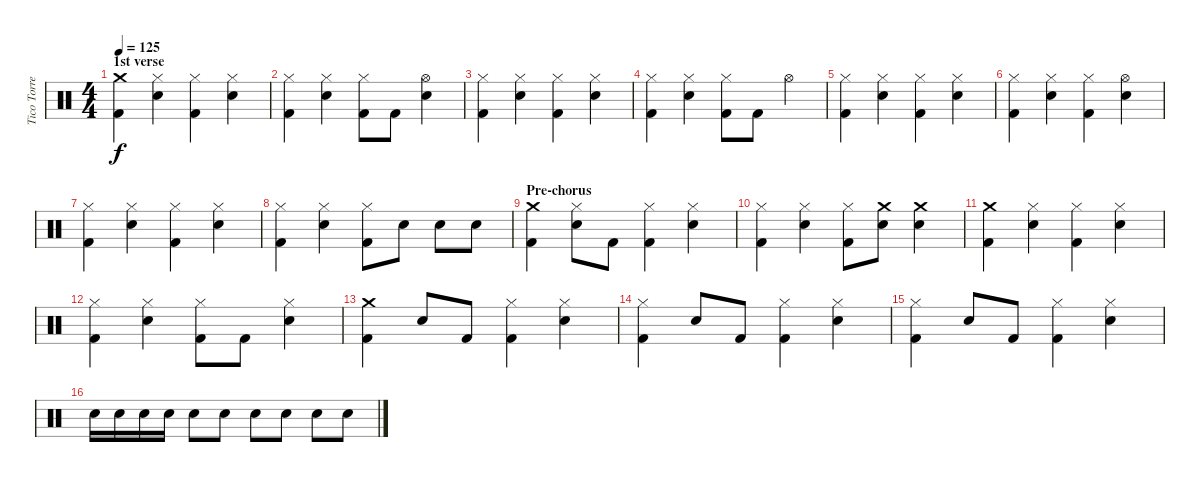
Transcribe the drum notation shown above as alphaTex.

\track ("Tico Torres" "Tico Torre") {instrument percussion}
\staff {score}
\articulation defaults
\ts (4 4)
\section ("" "1st verse")
\tempo 125
\clef neutral
\ks c
("Crash medium (hit)" "Kick (hit) 2").4{dy f} ("Hi-Hat (closed)" "Snare (hit) 2").4 ("Hi-Hat (closed)" "Kick (hit) 2").4 ("Hi-Hat (closed)" "Snare (hit) 2").4 |
("Hi-Hat (closed)" "Kick (hit) 2").4 ("Hi-Hat (closed)" "Snare (hit) 2").4 ("Hi-Hat (closed)" "Kick (hit) 2").8 "Kick (hit) 2".8 ("Hi-Hat (open)" "Snare (hit) 2").4 |
("Hi-Hat (closed)" "Kick (hit) 2").4 ("Hi-Hat (closed)" "Snare (hit) 2").4 ("Hi-Hat (closed)" "Kick (hit) 2").4 ("Hi-Hat (closed)" "Snare (hit) 2").4 |
("Hi-Hat (closed)" "Kick (hit) 2").4 ("Hi-Hat (closed)" "Snare (hit) 2").4 ("Hi-Hat (closed)" "Kick (hit) 2").8 "Kick (hit) 2".8 "Hi-Hat (open)".4 |
("Hi-Hat (closed)" "Kick (hit) 2").4 ("Hi-Hat (closed)" "Snare (hit) 2").4 ("Hi-Hat (closed)" "Kick (hit) 2").4 ("Hi-Hat (closed)" "Snare (hit) 2").4 |
("Hi-Hat (closed)" "Kick (hit) 2").4 ("Hi-Hat (closed)" "Snare (hit) 2").4 ("Hi-Hat (closed)" "Kick (hit) 2").4 ("Hi-Hat (open)" "Snare (hit) 2").4 |
("Hi-Hat (closed)" "Kick (hit) 2").4 ("Hi-Hat (closed)" "Snare (hit) 2").4 ("Hi-Hat (closed)" "Kick (hit) 2").4 ("Hi-Hat (closed)" "Snare (hit) 2").4 |
("Hi-Hat (closed)" "Kick (hit) 2").4 ("Hi-Hat (closed)" "Snare (hit) 2").4 ("Hi-Hat (closed)" "Kick (hit) 2").8 "Snare (hit) 2".8 "Snare (hit) 2".8 "Snare (hit) 2".8 |
\section ("" "Pre-chorus")
("Crash medium (hit)" "Kick (hit) 2").4 ("Hi-Hat (closed)" "Snare (hit) 2").8 "Kick (hit) 2".8 ("Hi-Hat (closed)" "Kick (hit) 2").4 ("Hi-Hat (closed)" "Snare (hit) 2").4 |
("Hi-Hat (closed)" "Kick (hit) 2").4 ("Hi-Hat (closed)" "Snare (hit) 2").4 ("Hi-Hat (closed)" "Kick (hit) 2").8 ("Crash medium (hit)" "Snare (hit) 2").8 ("Crash medium (hit)" "Snare (hit) 2").4 |
("Crash medium (hit)" "Kick (hit) 2").4 ("Hi-Hat (closed)" "Snare (hit) 2").4 ("Hi-Hat (closed)" "Kick (hit) 2").4 ("Hi-Hat (closed)" "Snare (hit) 2").4 |
("Hi-Hat (closed)" "Kick (hit) 2").4 ("Hi-Hat (closed)" "Snare (hit) 2").4 ("Hi-Hat (closed)" "Kick (hit) 2").8 "Kick (hit) 2".8 ("Hi-Hat (closed)" "Snare (hit) 2").4 |
("Crash medium (hit)" "Kick (hit) 2").4 "Snare (hit) 2".8 "Kick (hit) 2".8 ("Hi-Hat (closed)" "Kick (hit) 2").4 ("Hi-Hat (closed)" "Snare (hit) 2").4 |
("Hi-Hat (closed)" "Kick (hit) 2").4 "Snare (hit) 2".8 "Kick (hit) 2".8 ("Hi-Hat (closed)" "Kick (hit) 2").4 ("Hi-Hat (closed)" "Snare (hit) 2").4 |
("Hi-Hat (closed)" "Kick (hit) 2").4 "Snare (hit) 2".8 "Kick (hit) 2".8 ("Hi-Hat (closed)" "Kick (hit) 2").4 ("Hi-Hat (closed)" "Snare (hit) 2").4 |
"Snare (hit) 2".16 "Snare (hit) 2".16 "Snare (hit) 2".16 "Snare (hit) 2".16 "Snare (hit) 2".8 "Snare (hit) 2".8 "Snare (hit) 2".8 "Snare (hit) 2".8 "Snare (hit) 2".8 "Snare (hit) 2".8
